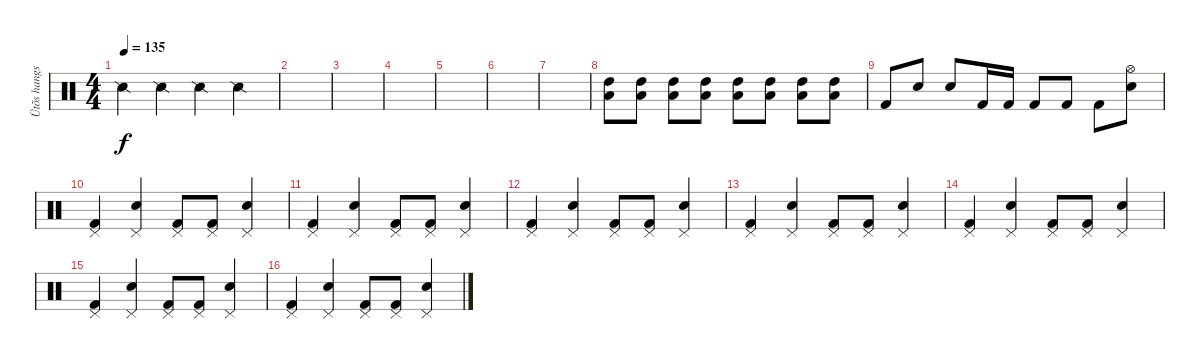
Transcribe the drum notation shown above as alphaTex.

\track ("Ütõs hangszer" "Ütõs hangs") {instrument percussion}
\staff {score}
\articulation defaults
\ts (4 4)
\tempo 135
\clef neutral
\ks c "Snare (side stick) 2".4{dy f} "Snare (side stick) 2".4 "Snare (side stick) 2".4 "Snare (side stick) 2".4
|
|
|
|
|
|
|
("High Tom (hit)" "Low Tom (hit)").8{volume 2} ("High Tom (hit)" "Low Tom (hit)").8{volume 4} ("High Tom (hit)" "Low Tom (hit)").8{volume 6} ("High Tom (hit)" "Low Tom (hit)").8{volume 8} ("High Tom (hit)" "Low Tom (hit)").8{volume 10} ("High Tom (hit)" "Low Tom (hit)").8{volume 12} ("High Tom (hit)" "Low Tom (hit)").8{volume 14} ("High Tom (hit)" "Low Tom (hit)").8{volume 16} |
"Kick (hit) 2".8 "Electric Snare (hit)".8 "Electric Snare (hit)".8 "Kick (hit) 2".16 "Kick (hit) 2".16 "Kick (hit) 2".8 "Kick (hit) 2".8 "Kick (hit) 2".8 ("Hi-Hat (open)" "Electric Snare (hit)").8 |
("Pedal Hi-Hat (hit)" "Kick (hit) 2").4 ("Pedal Hi-Hat (hit)" "Electric Snare (hit)").4 ("Pedal Hi-Hat (hit)" "Kick (hit) 2").8 ("Pedal Hi-Hat (hit)" "Kick (hit) 2").8 ("Pedal Hi-Hat (hit)" "Electric Snare (hit)").4 |
("Pedal Hi-Hat (hit)" "Kick (hit) 2").4 ("Pedal Hi-Hat (hit)" "Electric Snare (hit)").4 ("Pedal Hi-Hat (hit)" "Kick (hit) 2").8 ("Pedal Hi-Hat (hit)" "Kick (hit) 2").8 ("Pedal Hi-Hat (hit)" "Electric Snare (hit)").4 |
("Pedal Hi-Hat (hit)" "Kick (hit) 2").4 ("Pedal Hi-Hat (hit)" "Electric Snare (hit)").4 ("Pedal Hi-Hat (hit)" "Kick (hit) 2").8 ("Pedal Hi-Hat (hit)" "Kick (hit) 2").8 ("Pedal Hi-Hat (hit)" "Electric Snare (hit)").4 |
("Pedal Hi-Hat (hit)" "Kick (hit) 2").4 ("Pedal Hi-Hat (hit)" "Electric Snare (hit)").4 ("Pedal Hi-Hat (hit)" "Kick (hit) 2").8 ("Pedal Hi-Hat (hit)" "Kick (hit) 2").8 ("Pedal Hi-Hat (hit)" "Electric Snare (hit)").4 |
("Pedal Hi-Hat (hit)" "Kick (hit) 2").4 ("Pedal Hi-Hat (hit)" "Electric Snare (hit)").4 ("Pedal Hi-Hat (hit)" "Kick (hit) 2").8 ("Pedal Hi-Hat (hit)" "Kick (hit) 2").8 ("Pedal Hi-Hat (hit)" "Electric Snare (hit)").4 |
("Pedal Hi-Hat (hit)" "Kick (hit) 2").4 ("Pedal Hi-Hat (hit)" "Electric Snare (hit)").4 ("Pedal Hi-Hat (hit)" "Kick (hit) 2").8 ("Pedal Hi-Hat (hit)" "Kick (hit) 2").8 ("Pedal Hi-Hat (hit)" "Electric Snare (hit)").4 |
("Pedal Hi-Hat (hit)" "Kick (hit) 2").4 ("Pedal Hi-Hat (hit)" "Electric Snare (hit)").4 ("Pedal Hi-Hat (hit)" "Kick (hit) 2").8 ("Pedal Hi-Hat (hit)" "Kick (hit) 2").8 ("Pedal Hi-Hat (hit)" "Electric Snare (hit)").4
